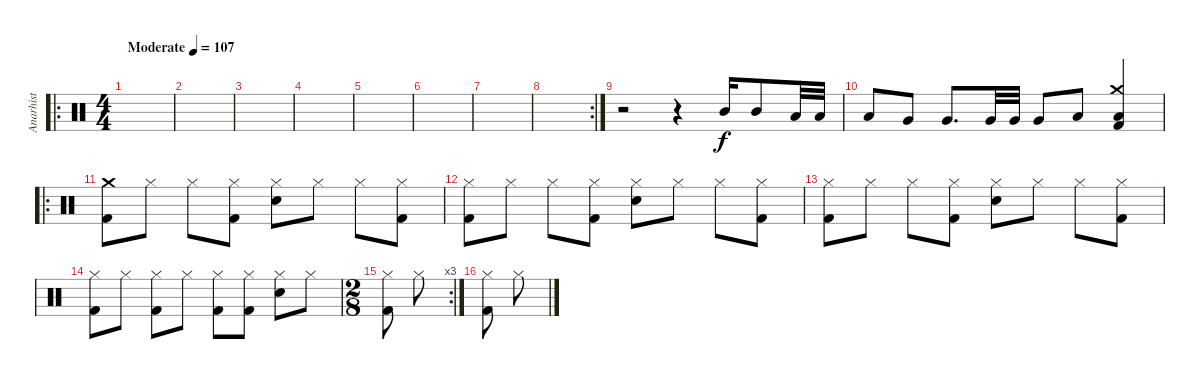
\track ("Anarhist" "Anarhist") {instrument percussion}
\staff {score}
\articulation defaults
\ro
\ts (4 4)
\tempo (107 "Moderate")
\clef neutral
\ks c
|
|
|
|
|
|
|
\rc 2
|
\ks aminor
r.2 r.4 "Mid Tom (hit)".16 "Mid Tom (hit)".8 "Low Tom (hit)".32 "Low Tom (hit)".32 |
"Low Tom (hit)".8 "Very Low Tom (hit)".8 "Very Low Tom (hit)".8{d} "Very Low Tom (hit)".32 "Very Low Tom (hit)".32 "Very Low Tom (hit)".8 "Low Floor Tom (hit)".8 ("Crash medium (hit)" "Low Floor Tom (hit)" "Kick (hit) 2").4 |
\ro
\ks c
("Crash medium (hit)" "Kick (hit) 2").8{dy f} "Hi-Hat (closed)".8 "Hi-Hat (closed)".8 ("Kick (hit) 2" "Hi-Hat (closed)").8 ("Snare (hit) 2" "Hi-Hat (closed)").8 "Hi-Hat (closed)".8 "Hi-Hat (closed)".8 ("Kick (hit) 2" "Hi-Hat (closed)").8 |
("Kick (hit) 2" "Hi-Hat (closed)").8 "Hi-Hat (closed)".8 "Hi-Hat (closed)".8 ("Kick (hit) 2" "Hi-Hat (closed)").8 ("Snare (hit) 2" "Hi-Hat (closed)").8 "Hi-Hat (closed)".8 "Hi-Hat (closed)".8 ("Kick (hit) 2" "Hi-Hat (closed)").8 |
("Kick (hit) 2" "Hi-Hat (closed)").8 "Hi-Hat (closed)".8 "Hi-Hat (closed)".8 ("Kick (hit) 2" "Hi-Hat (closed)").8 ("Snare (hit) 2" "Hi-Hat (closed)").8 "Hi-Hat (closed)".8 "Hi-Hat (closed)".8 ("Kick (hit) 2" "Hi-Hat (closed)").8 |
("Kick (hit) 2" "Hi-Hat (closed)").8 "Hi-Hat (closed)".8 ("Kick (hit) 2" "Hi-Hat (closed)").8 "Hi-Hat (closed)".8 ("Kick (hit) 2" "Hi-Hat (closed)").8 ("Kick (hit) 2" "Hi-Hat (closed)").8 ("Snare (hit) 2" "Hi-Hat (closed)").8 "Hi-Hat (closed)".8 |
\rc 3
\ts (2 8)
("Kick (hit) 2" "Hi-Hat (closed)").8 "Hi-Hat (closed)".8 |
("Kick (hit) 2" "Hi-Hat (closed)").8 "Hi-Hat (closed)".8
